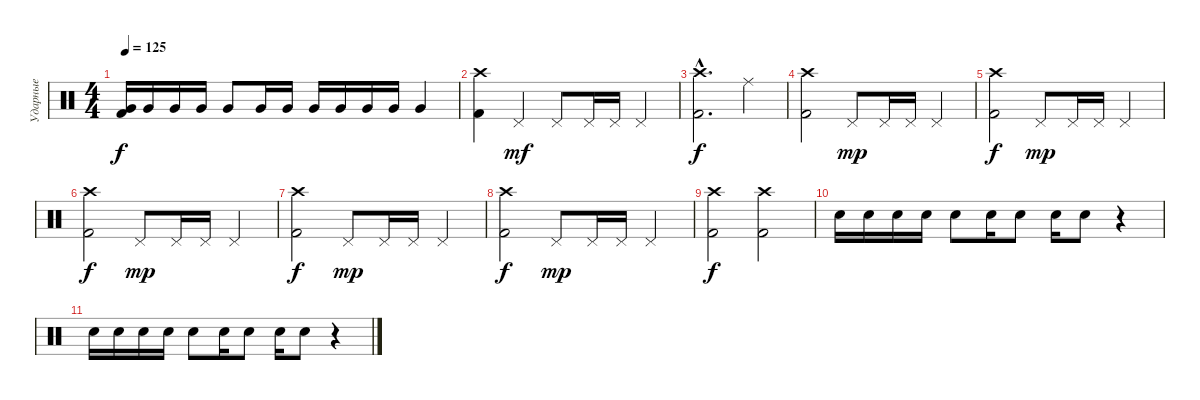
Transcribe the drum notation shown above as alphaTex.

\track ("Ударные" "Ударные") {instrument percussion}
\staff {score}
\articulation defaults
\ts (4 4)
\tempo 125
\clef neutral
\ks c
("Kick (hit) 2" "Very Low Tom (hit)").16{dy f} "Very Low Tom (hit)".16 "Very Low Tom (hit)".16 "Very Low Tom (hit)".16 "Very Low Tom (hit)".8 "Very Low Tom (hit)".16 "Very Low Tom (hit)".16 "Very Low Tom (hit)".16 "Very Low Tom (hit)".16 "Very Low Tom (hit)".16 "Very Low Tom (hit)".16 "Very Low Tom (hit)".4 |
("Crash high (hit)" "Kick (hit) 2").4 "Pedal Hi-Hat (hit)".4{dy mf} "Pedal Hi-Hat (hit)".8 "Pedal Hi-Hat (hit)".16 "Pedal Hi-Hat (hit)".16 "Pedal Hi-Hat (hit)".4 |
("Crash high (hit)"{hac} "Kick (hit) 2"{hac}).2{d dy f} "Ride (middle)".4 |
("Crash high (hit)" "Kick (hit) 2").2 "Pedal Hi-Hat (hit)".8{dy mp} "Pedal Hi-Hat (hit)".16 "Pedal Hi-Hat (hit)".16 "Pedal Hi-Hat (hit)".4 |
("Crash high (hit)" "Kick (hit) 2").2{dy f} "Pedal Hi-Hat (hit)".8{dy mp} "Pedal Hi-Hat (hit)".16 "Pedal Hi-Hat (hit)".16 "Pedal Hi-Hat (hit)".4 |
("Crash high (hit)" "Kick (hit) 2").2{dy f} "Pedal Hi-Hat (hit)".8{dy mp} "Pedal Hi-Hat (hit)".16 "Pedal Hi-Hat (hit)".16 "Pedal Hi-Hat (hit)".4 |
("Crash high (hit)" "Kick (hit) 2").2{dy f} "Pedal Hi-Hat (hit)".8{dy mp} "Pedal Hi-Hat (hit)".16 "Pedal Hi-Hat (hit)".16 "Pedal Hi-Hat (hit)".4 |
("Crash high (hit)" "Kick (hit) 2").2{dy f} "Pedal Hi-Hat (hit)".8{dy mp} "Pedal Hi-Hat (hit)".16 "Pedal Hi-Hat (hit)".16 "Pedal Hi-Hat (hit)".4 |
("Crash high (hit)" "Kick (hit) 2").2{dy f} ("Crash high (hit)" "Kick (hit) 2").2 |
"Snare (hit) 2".16 "Snare (hit) 2".16 "Snare (hit) 2".16 "Snare (hit) 2".16 "Snare (hit) 2".8 "Snare (hit) 2".16 "Snare (hit) 2".8 "Snare (hit) 2".16 "Snare (hit) 2".8 r.4 |
"Snare (hit) 2".16 "Snare (hit) 2".16 "Snare (hit) 2".16 "Snare (hit) 2".16 "Snare (hit) 2".8 "Snare (hit) 2".16 "Snare (hit) 2".8 "Snare (hit) 2".16 "Snare (hit) 2".8 r.4
